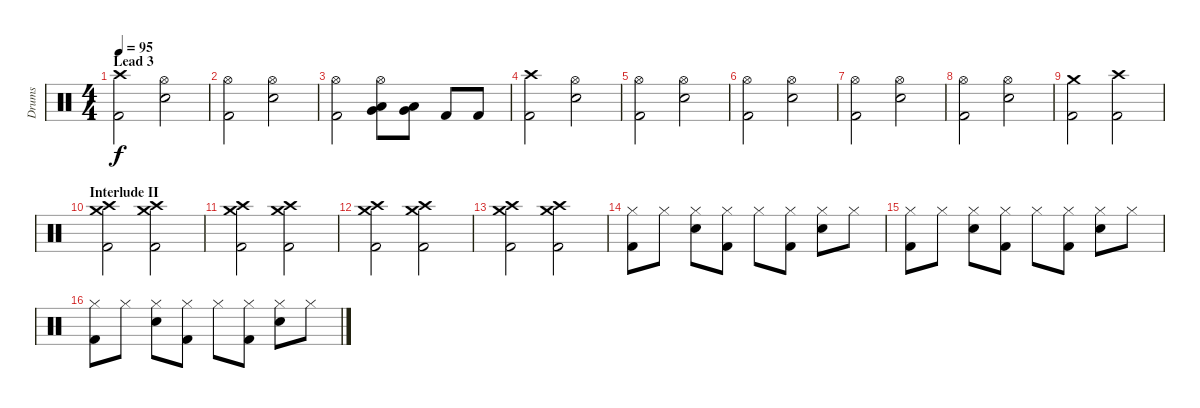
\track ("Drums" "Drums") {instrument percussion}
\staff {score}
\articulation defaults
\ts (4 4)
\section ("" "Lead 3")
\tempo 95
\clef neutral
\ks c
("Crash high (hit)" "Kick (hit) 2").2{dy f} ("Hi-Hat (open)" "Electric Snare (hit)").2 |
("Hi-Hat (open)" "Kick (hit) 2").2 ("Hi-Hat (open)" "Electric Snare (hit)").2 |
("Hi-Hat (open)" "Kick (hit) 2").2 ("Hi-Hat (open)" "Low Tom (hit)" "Very Low Tom (hit)").8 ("Low Tom (hit)" "Very Low Tom (hit)").8 "Kick (hit) 2".8 "Kick (hit) 2".8 |
("Crash high (hit)" "Kick (hit) 2").2 ("Hi-Hat (open)" "Electric Snare (hit)").2 |
("Hi-Hat (open)" "Kick (hit) 2").2 ("Hi-Hat (open)" "Electric Snare (hit)").2 |
("Hi-Hat (open)" "Kick (hit) 2").2 ("Hi-Hat (open)" "Electric Snare (hit)").2 |
("Hi-Hat (open)" "Kick (hit) 2").2 ("Hi-Hat (open)" "Electric Snare (hit)").2 |
("Hi-Hat (open)" "Kick (hit) 2").2 ("Hi-Hat (open)" "Electric Snare (hit)").2 |
("Crash medium (hit)" "Kick (hit) 2").2 ("Crash high (hit)" "Kick (hit) 2").2 |
\section ("" "Interlude II")
("Crash high (hit)" "Crash medium (hit)" "Kick (hit) 2").2 ("Crash high (hit)" "Crash medium (hit)" "Kick (hit) 2").2 |
("Crash high (hit)" "Crash medium (hit)" "Kick (hit) 2").2 ("Crash high (hit)" "Crash medium (hit)" "Kick (hit) 2").2 |
("Crash high (hit)" "Crash medium (hit)" "Kick (hit) 2").2 ("Crash high (hit)" "Crash medium (hit)" "Kick (hit) 2").2 |
("Crash high (hit)" "Crash medium (hit)" "Kick (hit) 2").2 ("Crash high (hit)" "Crash medium (hit)" "Kick (hit) 2").2 |
("Hi-Hat (closed)" "Kick (hit) 2").8 "Hi-Hat (closed)".8 ("Hi-Hat (closed)" "Electric Snare (hit)").8 ("Hi-Hat (closed)" "Kick (hit) 2").8 "Hi-Hat (closed)".8 ("Hi-Hat (closed)" "Kick (hit) 2").8 ("Hi-Hat (closed)" "Electric Snare (hit)").8 "Hi-Hat (closed)".8 |
("Hi-Hat (closed)" "Kick (hit) 2").8 "Hi-Hat (closed)".8 ("Hi-Hat (closed)" "Electric Snare (hit)").8 ("Hi-Hat (closed)" "Kick (hit) 2").8 "Hi-Hat (closed)".8 ("Hi-Hat (closed)" "Kick (hit) 2").8 ("Hi-Hat (closed)" "Electric Snare (hit)").8 "Hi-Hat (closed)".8 |
("Hi-Hat (closed)" "Kick (hit) 2").8 "Hi-Hat (closed)".8 ("Hi-Hat (closed)" "Electric Snare (hit)").8 ("Hi-Hat (closed)" "Kick (hit) 2").8 "Hi-Hat (closed)".8 ("Hi-Hat (closed)" "Kick (hit) 2").8 ("Hi-Hat (closed)" "Electric Snare (hit)").8 "Hi-Hat (closed)".8
